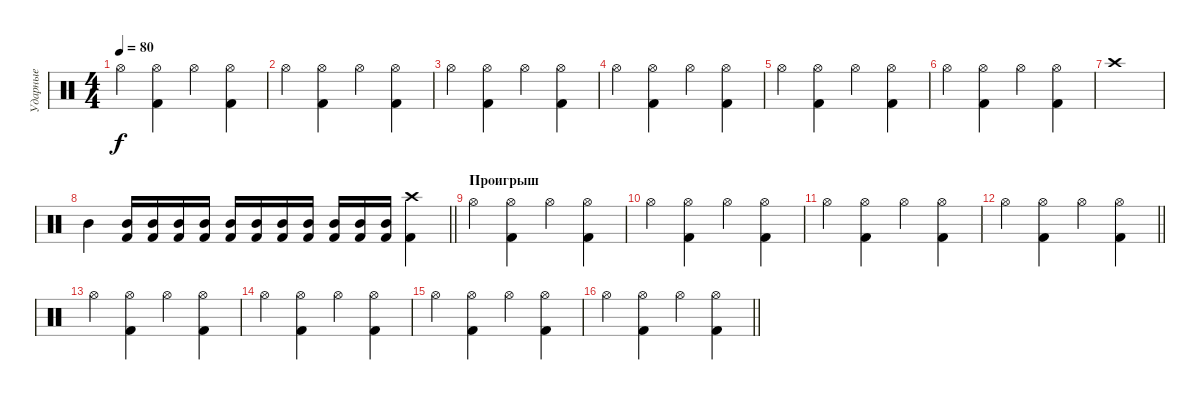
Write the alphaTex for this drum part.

\track ("Ударные" "Ударные") {instrument percussion}
\staff {score}
\articulation defaults
\ts (4 4)
\tempo 80
\clef neutral
\ks c "Hi-Hat (open)".4{dy f}
("Hi-Hat (open)" "Kick (hit) 2").4 "Hi-Hat (open)".4 ("Hi-Hat (open)" "Kick (hit) 2").4 |
"Hi-Hat (open)".4 ("Hi-Hat (open)" "Kick (hit) 2").4 "Hi-Hat (open)".4 ("Hi-Hat (open)" "Kick (hit) 2").4 |
"Hi-Hat (open)".4 ("Hi-Hat (open)" "Kick (hit) 2").4 "Hi-Hat (open)".4 ("Hi-Hat (open)" "Kick (hit) 2").4 |
"Hi-Hat (open)".4 ("Hi-Hat (open)" "Kick (hit) 2").4 "Hi-Hat (open)".4 ("Hi-Hat (open)" "Kick (hit) 2").4 |
"Hi-Hat (open)".4 ("Hi-Hat (open)" "Kick (hit) 2").4 "Hi-Hat (open)".4 ("Hi-Hat (open)" "Kick (hit) 2").4 |
"Hi-Hat (open)".4 ("Hi-Hat (open)" "Kick (hit) 2").4 "Hi-Hat (open)".4 ("Hi-Hat (open)" "Kick (hit) 2").4 |
"Crash high (hit)".1 |
\barLineRight lightlight "Mid Tom (hit)".4
("Mid Tom (hit)" "Kick (hit) 2").16 ("Mid Tom (hit)" "Kick (hit) 2").16 ("Mid Tom (hit)" "Kick (hit) 2").16 ("Mid Tom (hit)" "Kick (hit) 2").16 ("Mid Tom (hit)" "Kick (hit) 2").16 ("Mid Tom (hit)" "Kick (hit) 2").16 ("Mid Tom (hit)" "Kick (hit) 2").16 ("Mid Tom (hit)" "Kick (hit) 2").16 ("Mid Tom (hit)" "Kick (hit) 2").16 ("Mid Tom (hit)" "Kick (hit) 2").16 ("Mid Tom (hit)" "Kick (hit) 2").16 ("Crash high (hit)" "Kick (hit) 2").4 |
\section ("" "Проигрыш")
"Hi-Hat (open)".4 ("Hi-Hat (open)" "Kick (hit) 2").4 "Hi-Hat (open)".4 ("Hi-Hat (open)" "Kick (hit) 2").4 |
"Hi-Hat (open)".4 ("Hi-Hat (open)" "Kick (hit) 2").4 "Hi-Hat (open)".4 ("Hi-Hat (open)" "Kick (hit) 2").4 |
"Hi-Hat (open)".4 ("Hi-Hat (open)" "Kick (hit) 2").4 "Hi-Hat (open)".4 ("Hi-Hat (open)" "Kick (hit) 2").4 |
\barLineRight lightlight "Hi-Hat (open)".4
("Hi-Hat (open)" "Kick (hit) 2").4 "Hi-Hat (open)".4 ("Hi-Hat (open)" "Kick (hit) 2").4 |
"Hi-Hat (open)".4 ("Hi-Hat (open)" "Kick (hit) 2").4 "Hi-Hat (open)".4 ("Hi-Hat (open)" "Kick (hit) 2").4 |
"Hi-Hat (open)".4 ("Hi-Hat (open)" "Kick (hit) 2").4 "Hi-Hat (open)".4 ("Hi-Hat (open)" "Kick (hit) 2").4 |
"Hi-Hat (open)".4 ("Hi-Hat (open)" "Kick (hit) 2").4 "Hi-Hat (open)".4 ("Hi-Hat (open)" "Kick (hit) 2").4 |
\barLineRight lightlight "Hi-Hat (open)".4
("Hi-Hat (open)" "Kick (hit) 2").4 "Hi-Hat (open)".4 ("Hi-Hat (open)" "Kick (hit) 2").4
